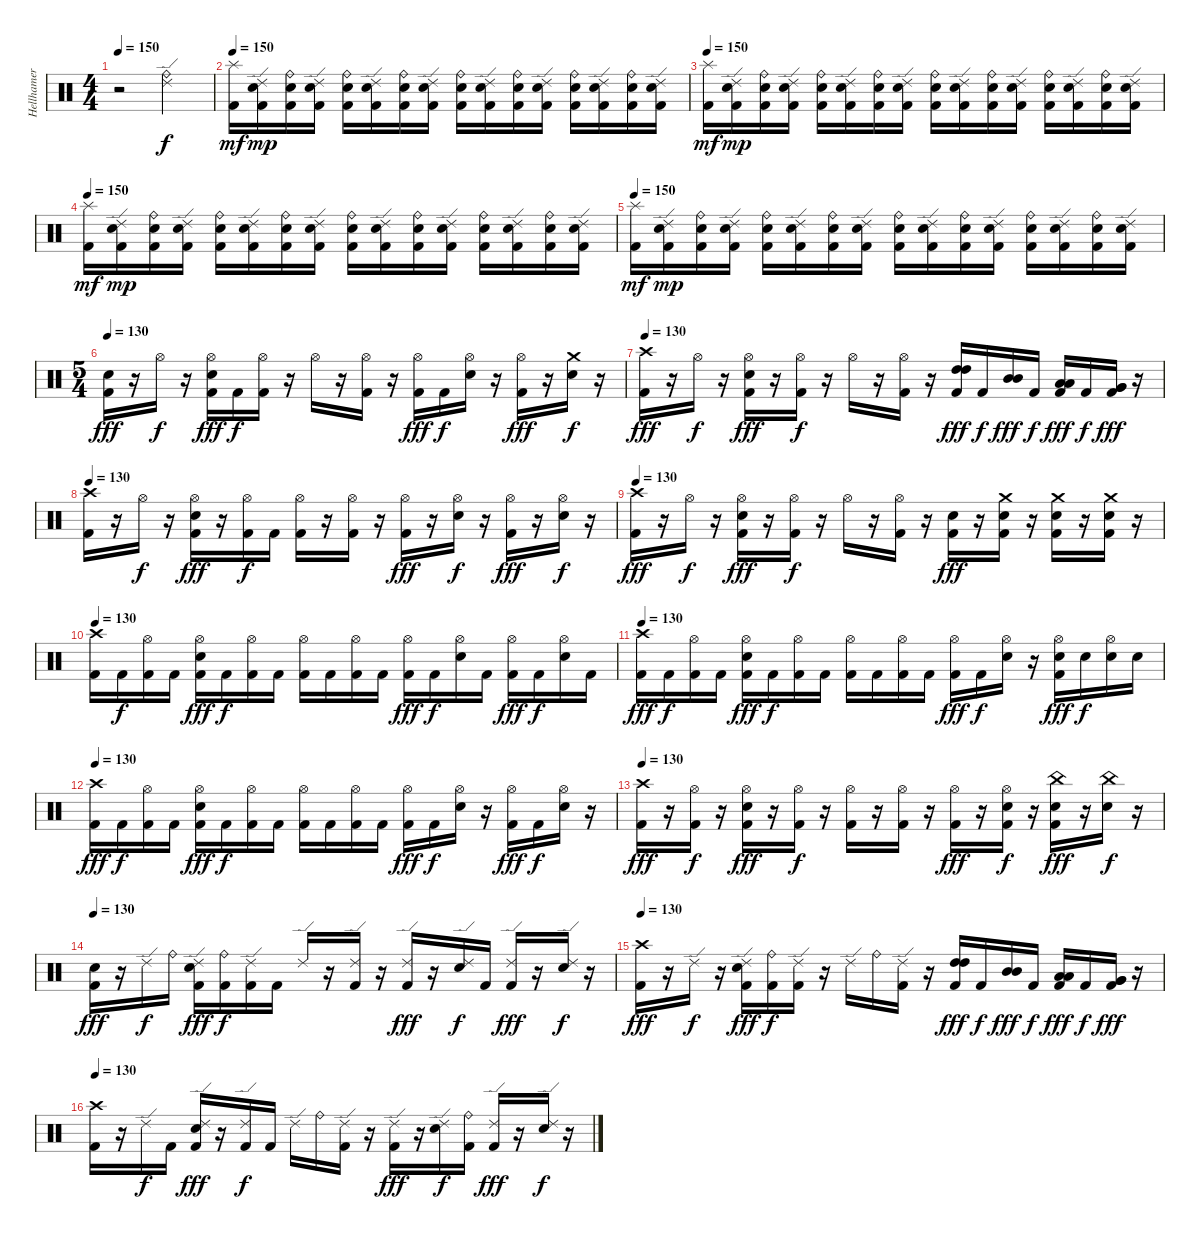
\track ("Hellhamer" "Hellhamer") {instrument percussion}
\staff {score}
\articulation defaults
\ts (4 4)
\tempo 150
\clef neutral
\ks c
r.2{dy f} ("Ride (edge) 2" "Ride (bell)").2 |
\tempo 150
("Splash (hit)" "Kick (hit) 2").16{dy mf} ("Ride (edge) 2" "Electric Snare (hit)" "Kick (hit) 2").16{dy mp} ("Ride (bell)" "Electric Snare (hit)" "Kick (hit) 2").16 ("Ride (edge) 2" "Electric Snare (hit)" "Kick (hit) 2").16 ("Ride (bell)" "Electric Snare (hit)" "Kick (hit) 2").16 ("Ride (edge) 2" "Electric Snare (hit)" "Kick (hit) 2").16 ("Ride (bell)" "Electric Snare (hit)" "Kick (hit) 2").16 ("Ride (edge) 2" "Electric Snare (hit)" "Kick (hit) 2").16 ("Ride (bell)" "Electric Snare (hit)" "Kick (hit) 2").16 ("Ride (edge) 2" "Electric Snare (hit)" "Kick (hit) 2").16 ("Ride (bell)" "Electric Snare (hit)" "Kick (hit) 2").16 ("Ride (edge) 2" "Electric Snare (hit)" "Kick (hit) 2").16 ("Ride (bell)" "Electric Snare (hit)" "Kick (hit) 2").16 ("Ride (edge) 2" "Electric Snare (hit)" "Kick (hit) 2").16 ("Ride (bell)" "Electric Snare (hit)" "Kick (hit) 2").16 ("Ride (edge) 2" "Electric Snare (hit)" "Kick (hit) 2").16 |
\tempo 150
("Splash (hit)" "Kick (hit) 2").16{dy mf} ("Ride (edge) 2" "Electric Snare (hit)" "Kick (hit) 2").16{dy mp} ("Ride (bell)" "Electric Snare (hit)" "Kick (hit) 2").16 ("Ride (edge) 2" "Electric Snare (hit)" "Kick (hit) 2").16 ("Ride (bell)" "Electric Snare (hit)" "Kick (hit) 2").16 ("Ride (edge) 2" "Electric Snare (hit)" "Kick (hit) 2").16 ("Ride (bell)" "Electric Snare (hit)" "Kick (hit) 2").16 ("Ride (edge) 2" "Electric Snare (hit)" "Kick (hit) 2").16 ("Ride (bell)" "Electric Snare (hit)" "Kick (hit) 2").16 ("Ride (edge) 2" "Electric Snare (hit)" "Kick (hit) 2").16 ("Ride (bell)" "Electric Snare (hit)" "Kick (hit) 2").16 ("Ride (edge) 2" "Electric Snare (hit)" "Kick (hit) 2").16 ("Ride (bell)" "Electric Snare (hit)" "Kick (hit) 2").16 ("Ride (edge) 2" "Electric Snare (hit)" "Kick (hit) 2").16 ("Ride (bell)" "Electric Snare (hit)" "Kick (hit) 2").16 ("Ride (edge) 2" "Electric Snare (hit)" "Kick (hit) 2").16 |
\tempo 150
("Splash (hit)" "Kick (hit) 2").16{dy mf} ("Ride (edge) 2" "Electric Snare (hit)" "Kick (hit) 2").16{dy mp} ("Ride (bell)" "Electric Snare (hit)" "Kick (hit) 2").16 ("Ride (edge) 2" "Electric Snare (hit)" "Kick (hit) 2").16 ("Ride (bell)" "Electric Snare (hit)" "Kick (hit) 2").16 ("Ride (edge) 2" "Electric Snare (hit)" "Kick (hit) 2").16 ("Ride (bell)" "Electric Snare (hit)" "Kick (hit) 2").16 ("Ride (edge) 2" "Electric Snare (hit)" "Kick (hit) 2").16 ("Ride (bell)" "Electric Snare (hit)" "Kick (hit) 2").16 ("Ride (edge) 2" "Electric Snare (hit)" "Kick (hit) 2").16 ("Ride (bell)" "Electric Snare (hit)" "Kick (hit) 2").16 ("Ride (edge) 2" "Electric Snare (hit)" "Kick (hit) 2").16 ("Ride (bell)" "Electric Snare (hit)" "Kick (hit) 2").16 ("Ride (edge) 2" "Electric Snare (hit)" "Kick (hit) 2").16 ("Ride (bell)" "Electric Snare (hit)" "Kick (hit) 2").16 ("Ride (edge) 2" "Electric Snare (hit)" "Kick (hit) 2").16 |
\tempo 150
("Splash (hit)" "Kick (hit) 2").16{dy mf} ("Ride (edge) 2" "Electric Snare (hit)" "Kick (hit) 2").16{dy mp} ("Ride (bell)" "Electric Snare (hit)" "Kick (hit) 2").16 ("Ride (edge) 2" "Electric Snare (hit)" "Kick (hit) 2").16 ("Ride (bell)" "Electric Snare (hit)" "Kick (hit) 2").16 ("Ride (edge) 2" "Electric Snare (hit)" "Kick (hit) 2").16 ("Ride (bell)" "Electric Snare (hit)" "Kick (hit) 2").16 ("Ride (edge) 2" "Electric Snare (hit)" "Kick (hit) 2").16 ("Ride (bell)" "Electric Snare (hit)" "Kick (hit) 2").16 ("Ride (edge) 2" "Electric Snare (hit)" "Kick (hit) 2").16 ("Ride (bell)" "Electric Snare (hit)" "Kick (hit) 2").16 ("Ride (edge) 2" "Electric Snare (hit)" "Kick (hit) 2").16 ("Ride (bell)" "Electric Snare (hit)" "Kick (hit) 2").16 ("Ride (edge) 2" "Electric Snare (hit)" "Kick (hit) 2").16 ("Ride (bell)" "Electric Snare (hit)" "Kick (hit) 2").16 ("Ride (edge) 2" "Electric Snare (hit)" "Kick (hit) 2").16 |
\ts (5 4)
\tempo 130
("Electric Snare (hit)" "Kick (hit) 2").16{dy fff} r.16 "Hi-Hat (open)".16{dy f} r.16 ("Hi-Hat (open)" "Electric Snare (hit)" "Kick (hit) 2").16{dy fff} "Kick (hit) 2".16{dy f} ("Hi-Hat (open)" "Kick (hit) 2").16 r.16 "Hi-Hat (open)".16 r.16 ("Hi-Hat (open)" "Kick (hit) 2").16 r.16 ("Hi-Hat (open)" "Kick (hit) 2").16{dy fff} "Kick (hit) 2".16{dy f} ("Hi-Hat (open)" "Electric Snare (hit)").16 r.16 ("Hi-Hat (open)" "Kick (hit) 2").16{dy fff} r.16 ("Crash medium (hit)" "Electric Snare (hit)").16{dy f} r.16 |
\tempo 130
("Crash high (hit)" "Kick (hit) 2").16{dy fff} r.16 "Hi-Hat (open)".16{dy f} r.16 ("Hi-Hat (open)" "Electric Snare (hit)" "Kick (hit) 2").16{dy fff} r.16 ("Hi-Hat (open)" "Kick (hit) 2").16{dy f} r.16 "Hi-Hat (open)".16 r.16 ("Hi-Hat (open)" "Kick (hit) 2").16 r.16 ("High Tom (hit)" "High Tom (hit)" "Kick (hit) 2").16{dy fff} "Kick (hit) 2".16{dy f} ("Mid Tom (hit)" "Mid Tom (hit)").16{dy fff} "Kick (hit) 2".16{dy f} ("Low Tom (hit)" "Low Tom (hit)" "Kick (hit) 2").16{dy fff} "Kick (hit) 2".16{dy f} ("Very Low Tom (hit)" "Very Low Tom (hit)" "Kick (hit) 2").16{dy fff} r.16 |
\tempo 130
("Crash high (hit)" "Kick (hit) 2").16 r.16 "Hi-Hat (open)".16{dy f} r.16 ("Hi-Hat (open)" "Electric Snare (hit)" "Kick (hit) 2").16{dy fff} r.16 ("Hi-Hat (open)" "Kick (hit) 2").16{dy f} "Kick (hit) 2".16 ("Hi-Hat (open)" "Kick (hit) 2").16 r.16 ("Hi-Hat (open)" "Kick (hit) 2").16 r.16 ("Hi-Hat (open)" "Kick (hit) 2").16{dy fff} r.16 ("Hi-Hat (open)" "Electric Snare (hit)").16{dy f} r.16 ("Hi-Hat (open)" "Kick (hit) 2").16{dy fff} r.16 ("Hi-Hat (open)" "Electric Snare (hit)").16{dy f} r.16 |
\tempo 130
("Crash high (hit)" "Kick (hit) 2").16{dy fff} r.16 "Hi-Hat (open)".16{dy f} r.16 ("Hi-Hat (open)" "Electric Snare (hit)" "Kick (hit) 2").16{dy fff} r.16 ("Hi-Hat (open)" "Kick (hit) 2").16{dy f} r.16 "Hi-Hat (open)".16 r.16 ("Hi-Hat (open)" "Kick (hit) 2").16 r.16 ("Electric Snare (hit)" "Kick (hit) 2").16{dy fff} r.16 ("Crash medium (hit)" "Electric Snare (hit)" "Kick (hit) 2").16 r.16 ("Crash medium (hit)" "Electric Snare (hit)" "Kick (hit) 2").16 r.16 ("Crash medium (hit)" "Electric Snare (hit)" "Kick (hit) 2").16 r.16 |
\tempo 130
("Crash high (hit)" "Kick (hit) 2").16 "Kick (hit) 2".16{dy f} ("Hi-Hat (open)" "Kick (hit) 2").16 "Kick (hit) 2".16 ("Hi-Hat (open)" "Electric Snare (hit)" "Kick (hit) 2").16{dy fff} "Kick (hit) 2".16{dy f} ("Hi-Hat (open)" "Kick (hit) 2").16 "Kick (hit) 2".16 ("Hi-Hat (open)" "Kick (hit) 2").16 "Kick (hit) 2".16 ("Hi-Hat (open)" "Kick (hit) 2").16 "Kick (hit) 2".16 ("Hi-Hat (open)" "Kick (hit) 2").16{dy fff} "Kick (hit) 2".16{dy f} ("Hi-Hat (open)" "Electric Snare (hit)").16 "Kick (hit) 2".16 ("Hi-Hat (open)" "Kick (hit) 2").16{dy fff} "Kick (hit) 2".16{dy f} ("Hi-Hat (open)" "Electric Snare (hit)").16 "Kick (hit) 2".16 |
\tempo 130
("Crash high (hit)" "Kick (hit) 2").16{dy fff} "Kick (hit) 2".16{dy f} ("Hi-Hat (open)" "Kick (hit) 2").16 "Kick (hit) 2".16 ("Hi-Hat (open)" "Electric Snare (hit)" "Kick (hit) 2").16{dy fff} "Kick (hit) 2".16{dy f} ("Hi-Hat (open)" "Kick (hit) 2").16 "Kick (hit) 2".16 ("Hi-Hat (open)" "Kick (hit) 2").16 "Kick (hit) 2".16 ("Hi-Hat (open)" "Kick (hit) 2").16 "Kick (hit) 2".16 ("Hi-Hat (open)" "Kick (hit) 2").16{dy fff} "Kick (hit) 2".16{dy f} ("Hi-Hat (open)" "Electric Snare (hit)").16 r.16 ("Hi-Hat (open)" "Electric Snare (hit)" "Kick (hit) 2").16{dy fff} "Electric Snare (hit)".16{dy f} ("Hi-Hat (open)" "Electric Snare (hit)").16 "Electric Snare (hit)".16 |
\tempo 130
("Crash high (hit)" "Kick (hit) 2").16{dy fff} "Kick (hit) 2".16{dy f} ("Hi-Hat (open)" "Kick (hit) 2").16 "Kick (hit) 2".16 ("Hi-Hat (open)" "Electric Snare (hit)" "Kick (hit) 2").16{dy fff} "Kick (hit) 2".16{dy f} ("Hi-Hat (open)" "Kick (hit) 2").16 "Kick (hit) 2".16 ("Hi-Hat (open)" "Kick (hit) 2").16 "Kick (hit) 2".16 ("Hi-Hat (open)" "Kick (hit) 2").16 "Kick (hit) 2".16 ("Hi-Hat (open)" "Kick (hit) 2").16{dy fff} "Kick (hit) 2".16{dy f} ("Hi-Hat (open)" "Electric Snare (hit)").16 r.16 ("Hi-Hat (open)" "Kick (hit) 2").16{dy fff} "Kick (hit) 2".16{dy f} ("Hi-Hat (open)" "Electric Snare (hit)").16 r.16 |
\tempo 130
("Crash high (hit)" "Kick (hit) 2").16{dy fff} r.16 ("Hi-Hat (open)" "Kick (hit) 2").16{dy f} r.16 ("Hi-Hat (open)" "Electric Snare (hit)" "Kick (hit) 2").16{dy fff} r.16 ("Hi-Hat (open)" "Kick (hit) 2").16{dy f} r.16 ("Hi-Hat (open)" "Kick (hit) 2").16 r.16 ("Hi-Hat (open)" "Kick (hit) 2").16 r.16 ("Hi-Hat (open)" "Kick (hit) 2").16{dy fff} r.16 ("Hi-Hat (open)" "Electric Snare (hit)" "Kick (hit) 2").16{dy f} r.16 ("China (hit)" "Electric Snare (hit)" "Kick (hit) 2").16{dy fff} r.16 ("China (hit)" "Electric Snare (hit)").16{dy f} r.16 |
\tempo 130
("Electric Snare (hit)" "Kick (hit) 2").16{dy fff} r.16 "Ride (edge) 2".16{dy f} "Ride (bell)".16 ("Ride (edge) 2" "Electric Snare (hit)" "Kick (hit) 2").16{dy fff} ("Ride (bell)" "Kick (hit) 2").16{dy f} ("Ride (edge) 2" "Kick (hit) 2").16 "Kick (hit) 2".16 "Ride (edge) 2".16 r.16 ("Ride (edge) 2" "Kick (hit) 2").16 r.16 ("Ride (edge) 2" "Kick (hit) 2").16{dy fff} r.16 ("Ride (edge) 2" "Electric Snare (hit)").16{dy f} "Kick (hit) 2".16 ("Ride (edge) 2" "Kick (hit) 2").16{dy fff} r.16 ("Ride (edge) 2" "Electric Snare (hit)").16{dy f} r.16 |
\tempo 130
("Crash high (hit)" "Kick (hit) 2").16{dy fff} r.16 "Ride (edge) 2".16{dy f} r.16 ("Ride (edge) 2" "Electric Snare (hit)" "Kick (hit) 2").16{dy fff} ("Ride (bell)" "Kick (hit) 2").16{dy f} ("Ride (edge) 2" "Kick (hit) 2").16 r.16 "Ride (edge) 2".16 "Ride (bell)".16 ("Ride (edge) 2" "Kick (hit) 2").16 r.16 ("High Tom (hit)" "High Tom (hit)" "Kick (hit) 2").16{dy fff} "Kick (hit) 2".16{dy f} ("Mid Tom (hit)" "Mid Tom (hit)").16{dy fff} "Kick (hit) 2".16{dy f} ("Low Tom (hit)" "Low Tom (hit)" "Kick (hit) 2").16{dy fff} "Kick (hit) 2".16{dy f} ("Very Low Tom (hit)" "Very Low Tom (hit)" "Kick (hit) 2").16{dy fff} r.16 |
\tempo 130
("Crash high (hit)" "Kick (hit) 2").16 r.16 "Ride (edge) 2".16{dy f} "Kick (hit) 2".16 ("Ride (edge) 2" "Electric Snare (hit)" "Kick (hit) 2").16{dy fff} r.16 ("Ride (edge) 2" "Kick (hit) 2").16{dy f} "Kick (hit) 2".16 "Ride (edge) 2".16 "Ride (bell)".16 ("Ride (edge) 2" "Kick (hit) 2").16 r.16 ("Ride (edge) 2" "Kick (hit) 2").16{dy fff} r.16 ("Ride (edge) 2" "Electric Snare (hit)").16{dy f} ("Ride (bell)" "Kick (hit) 2").16 ("Ride (edge) 2" "Kick (hit) 2").16{dy fff} r.16 ("Ride (edge) 2" "Electric Snare (hit)").16{dy f} r.16
